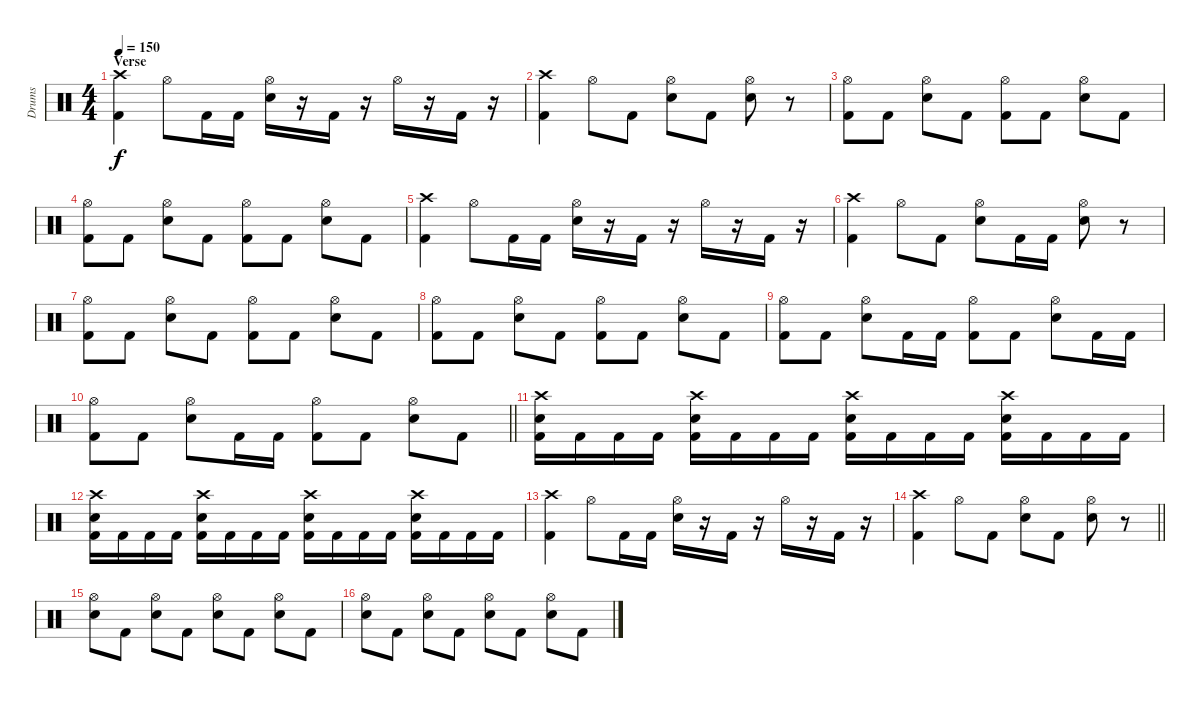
\track ("Drums" "Drums") {instrument percussion}
\staff {score}
\articulation defaults
\ts (4 4)
\section ("" "Verse")
\tempo 150
\clef neutral
\ks c
("Crash high (hit)" "Kick (hit) 2").4{dy f} "Hi-Hat (open)".8 "Kick (hit) 2".16 "Kick (hit) 2".16 ("Hi-Hat (open)" "Electric Snare (hit)").16 r.16 "Kick (hit) 2".16 r.16 "Hi-Hat (open)".16 r.16 "Kick (hit) 2".16 r.16 |
("Crash high (hit)" "Kick (hit) 2").4 "Hi-Hat (open)".8 "Kick (hit) 2".8 ("Hi-Hat (open)" "Electric Snare (hit)").8 "Kick (hit) 2".8 ("Hi-Hat (open)" "Electric Snare (hit)").8 r.8 |
("Hi-Hat (open)" "Kick (hit) 2").8 "Kick (hit) 2".8 ("Hi-Hat (open)" "Electric Snare (hit)").8 "Kick (hit) 2".8 ("Hi-Hat (open)" "Kick (hit) 2").8 "Kick (hit) 2".8 ("Hi-Hat (open)" "Electric Snare (hit)").8 "Kick (hit) 2".8 |
("Hi-Hat (open)" "Kick (hit) 2").8 "Kick (hit) 2".8 ("Hi-Hat (open)" "Electric Snare (hit)").8 "Kick (hit) 2".8 ("Hi-Hat (open)" "Kick (hit) 2").8 "Kick (hit) 2".8 ("Hi-Hat (open)" "Electric Snare (hit)").8 "Kick (hit) 2".8 |
("Crash high (hit)" "Kick (hit) 2").4 "Hi-Hat (open)".8 "Kick (hit) 2".16 "Kick (hit) 2".16 ("Hi-Hat (open)" "Electric Snare (hit)").16 r.16 "Kick (hit) 2".16 r.16 "Hi-Hat (open)".16 r.16 "Kick (hit) 2".16 r.16 |
("Crash high (hit)" "Kick (hit) 2").4 "Hi-Hat (open)".8 "Kick (hit) 2".8 ("Hi-Hat (open)" "Electric Snare (hit)").8 "Kick (hit) 2".16 "Kick (hit) 2".16 ("Hi-Hat (open)" "Electric Snare (hit)").8 r.8 |
("Hi-Hat (open)" "Kick (hit) 2").8 "Kick (hit) 2".8 ("Hi-Hat (open)" "Electric Snare (hit)").8 "Kick (hit) 2".8 ("Hi-Hat (open)" "Kick (hit) 2").8 "Kick (hit) 2".8 ("Hi-Hat (open)" "Electric Snare (hit)").8 "Kick (hit) 2".8 |
("Hi-Hat (open)" "Kick (hit) 2").8 "Kick (hit) 2".8 ("Hi-Hat (open)" "Electric Snare (hit)").8 "Kick (hit) 2".8 ("Hi-Hat (open)" "Kick (hit) 2").8 "Kick (hit) 2".8 ("Hi-Hat (open)" "Electric Snare (hit)").8 "Kick (hit) 2".8 |
("Hi-Hat (open)" "Kick (hit) 2").8 "Kick (hit) 2".8 ("Hi-Hat (open)" "Electric Snare (hit)").8 "Kick (hit) 2".16 "Kick (hit) 2".16 ("Hi-Hat (open)" "Kick (hit) 2").8 "Kick (hit) 2".8 ("Hi-Hat (open)" "Electric Snare (hit)").8 "Kick (hit) 2".16 "Kick (hit) 2".16 |
\barLineRight lightlight
("Hi-Hat (open)" "Kick (hit) 2").8 "Kick (hit) 2".8 ("Hi-Hat (open)" "Electric Snare (hit)").8 "Kick (hit) 2".16 "Kick (hit) 2".16 ("Hi-Hat (open)" "Kick (hit) 2").8 "Kick (hit) 2".8 ("Hi-Hat (open)" "Electric Snare (hit)").8 "Kick (hit) 2".8 |
\section ("" "")
("Crash high (hit)" "Electric Snare (hit)" "Kick (hit) 2").16 "Kick (hit) 2".16 "Kick (hit) 2".16 "Kick (hit) 2".16 ("Crash high (hit)" "Electric Snare (hit)" "Kick (hit) 2").16 "Kick (hit) 2".16 "Kick (hit) 2".16 "Kick (hit) 2".16 ("Crash high (hit)" "Electric Snare (hit)" "Kick (hit) 2").16 "Kick (hit) 2".16 "Kick (hit) 2".16 "Kick (hit) 2".16 ("Crash high (hit)" "Electric Snare (hit)" "Kick (hit) 2").16 "Kick (hit) 2".16 "Kick (hit) 2".16 "Kick (hit) 2".16 |
("Crash high (hit)" "Electric Snare (hit)" "Kick (hit) 2").16 "Kick (hit) 2".16 "Kick (hit) 2".16 "Kick (hit) 2".16 ("Crash high (hit)" "Electric Snare (hit)" "Kick (hit) 2").16 "Kick (hit) 2".16 "Kick (hit) 2".16 "Kick (hit) 2".16 ("Crash high (hit)" "Electric Snare (hit)" "Kick (hit) 2").16 "Kick (hit) 2".16 "Kick (hit) 2".16 "Kick (hit) 2".16 ("Crash high (hit)" "Electric Snare (hit)" "Kick (hit) 2").16 "Kick (hit) 2".16 "Kick (hit) 2".16 "Kick (hit) 2".16 |
("Crash high (hit)" "Kick (hit) 2").4 "Hi-Hat (open)".8 "Kick (hit) 2".16 "Kick (hit) 2".16 ("Hi-Hat (open)" "Electric Snare (hit)").16 r.16 "Kick (hit) 2".16 r.16 "Hi-Hat (open)".16 r.16 "Kick (hit) 2".16 r.16 |
\barLineRight lightlight
("Crash high (hit)" "Kick (hit) 2").4 "Hi-Hat (open)".8 "Kick (hit) 2".8 ("Hi-Hat (open)" "Electric Snare (hit)").8 "Kick (hit) 2".8 ("Hi-Hat (open)" "Electric Snare (hit)").8 r.8 |
("Hi-Hat (open)" "Electric Snare (hit)").8 "Kick (hit) 2".8 ("Hi-Hat (open)" "Electric Snare (hit)").8 "Kick (hit) 2".8 ("Hi-Hat (open)" "Electric Snare (hit)").8 "Kick (hit) 2".8 ("Hi-Hat (open)" "Electric Snare (hit)").8 "Kick (hit) 2".8 |
("Hi-Hat (open)" "Electric Snare (hit)").8 "Kick (hit) 2".8 ("Hi-Hat (open)" "Electric Snare (hit)").8 "Kick (hit) 2".8 ("Hi-Hat (open)" "Electric Snare (hit)").8 "Kick (hit) 2".8 ("Hi-Hat (open)" "Electric Snare (hit)").8 "Kick (hit) 2".8
